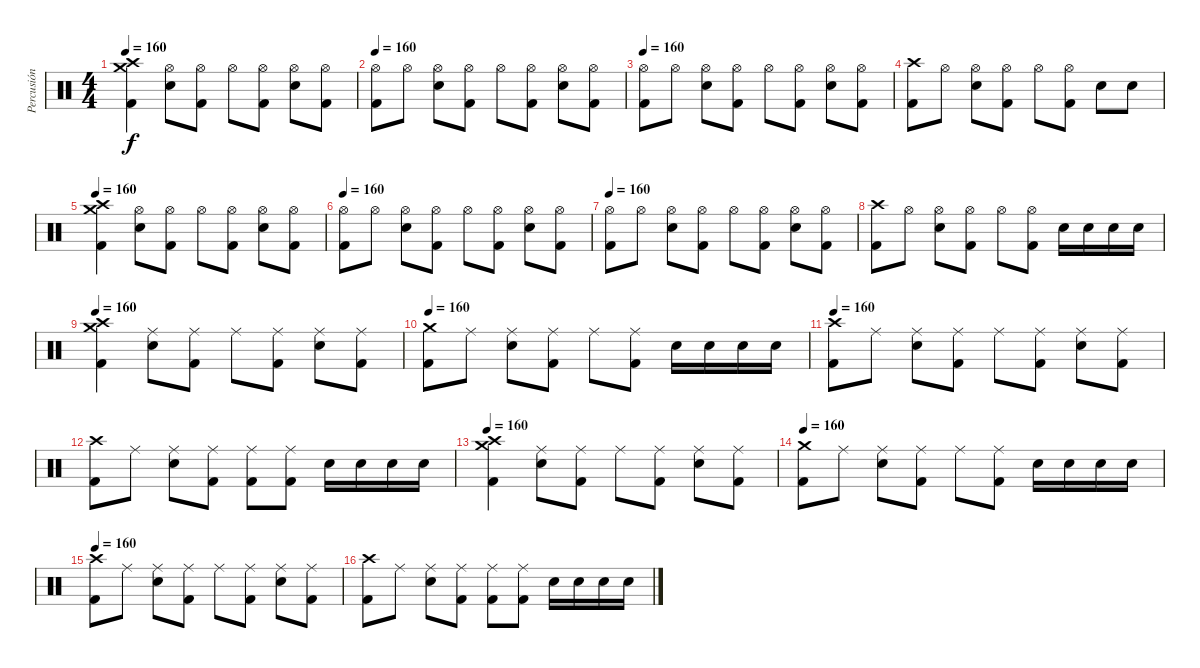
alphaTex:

\track ("Percusión" "Percusión") {instrument percussion}
\staff {score}
\articulation defaults
\ts (4 4)
\tempo 160
\clef neutral
\ks c
("Crash high (hit)" "Crash medium (hit)" "Kick (hit) 2").4{dy f} ("Hi-Hat (open)" "Snare (hit) 2").8 ("Hi-Hat (open)" "Kick (hit) 2").8 "Hi-Hat (open)".8 ("Hi-Hat (open)" "Kick (hit) 2").8 ("Hi-Hat (open)" "Snare (hit) 2").8 ("Hi-Hat (open)" "Kick (hit) 2").8 |
\tempo 160
("Hi-Hat (open)" "Kick (hit) 2").8 "Hi-Hat (open)".8 ("Hi-Hat (open)" "Snare (hit) 2").8 ("Hi-Hat (open)" "Kick (hit) 2").8 "Hi-Hat (open)".8 ("Hi-Hat (open)" "Kick (hit) 2").8 ("Hi-Hat (open)" "Snare (hit) 2").8 ("Hi-Hat (open)" "Kick (hit) 2").8 |
\tempo 160
("Hi-Hat (open)" "Kick (hit) 2").8 "Hi-Hat (open)".8 ("Hi-Hat (open)" "Snare (hit) 2").8 ("Hi-Hat (open)" "Kick (hit) 2").8 "Hi-Hat (open)".8 ("Hi-Hat (open)" "Kick (hit) 2").8 ("Hi-Hat (open)" "Snare (hit) 2").8 ("Hi-Hat (open)" "Kick (hit) 2").8 |
("Crash high (hit)" "Kick (hit) 2").8 "Hi-Hat (open)".8 ("Hi-Hat (open)" "Snare (hit) 2").8 ("Hi-Hat (open)" "Kick (hit) 2").8 "Hi-Hat (open)".8 ("Hi-Hat (open)" "Kick (hit) 2").8 "Snare (hit) 2".8 "Snare (hit) 2".8 |
\tempo 160
("Crash high (hit)" "Crash medium (hit)" "Kick (hit) 2").4 ("Hi-Hat (open)" "Snare (hit) 2").8 ("Hi-Hat (open)" "Kick (hit) 2").8 "Hi-Hat (open)".8 ("Hi-Hat (open)" "Kick (hit) 2").8 ("Hi-Hat (open)" "Snare (hit) 2").8 ("Hi-Hat (open)" "Kick (hit) 2").8 |
\tempo 160
("Hi-Hat (open)" "Kick (hit) 2").8 "Hi-Hat (open)".8 ("Hi-Hat (open)" "Snare (hit) 2").8 ("Hi-Hat (open)" "Kick (hit) 2").8 "Hi-Hat (open)".8 ("Hi-Hat (open)" "Kick (hit) 2").8 ("Hi-Hat (open)" "Snare (hit) 2").8 ("Hi-Hat (open)" "Kick (hit) 2").8 |
\tempo 160
("Hi-Hat (open)" "Kick (hit) 2").8 "Hi-Hat (open)".8 ("Hi-Hat (open)" "Snare (hit) 2").8 ("Hi-Hat (open)" "Kick (hit) 2").8 "Hi-Hat (open)".8 ("Hi-Hat (open)" "Kick (hit) 2").8 ("Hi-Hat (open)" "Snare (hit) 2").8 ("Hi-Hat (open)" "Kick (hit) 2").8 |
("Crash high (hit)" "Kick (hit) 2").8 "Hi-Hat (open)".8 ("Hi-Hat (open)" "Snare (hit) 2").8 ("Hi-Hat (open)" "Kick (hit) 2").8 "Hi-Hat (open)".8 ("Hi-Hat (open)" "Kick (hit) 2").8 "Snare (hit) 2".16 "Snare (hit) 2".16 "Snare (hit) 2".16 "Snare (hit) 2".16 |
\tempo 160
("Crash high (hit)" "Crash medium (hit)" "Kick (hit) 2").4 ("Ride (middle)" "Snare (hit) 2").8 ("Ride (middle)" "Kick (hit) 2").8 "Ride (middle)".8 ("Ride (middle)" "Kick (hit) 2").8 ("Ride (middle)" "Snare (hit) 2").8 ("Ride (middle)" "Kick (hit) 2").8 |
\tempo 160
("Crash medium (hit)" "Kick (hit) 2").8 "Ride (middle)".8 ("Ride (middle)" "Snare (hit) 2").8 ("Ride (middle)" "Kick (hit) 2").8 "Ride (middle)".8 ("Ride (middle)" "Kick (hit) 2").8 "Snare (hit) 2".16 "Snare (hit) 2".16 "Snare (hit) 2".16 "Snare (hit) 2".16 |
\tempo 160
("Crash high (hit)" "Kick (hit) 2").8 "Ride (middle)".8 ("Ride (middle)" "Snare (hit) 2").8 ("Ride (middle)" "Kick (hit) 2").8 "Ride (middle)".8 ("Ride (middle)" "Kick (hit) 2").8 ("Ride (middle)" "Snare (hit) 2").8 ("Ride (middle)" "Kick (hit) 2").8 |
("Crash high (hit)" "Kick (hit) 2").8 "Ride (middle)".8 ("Ride (middle)" "Snare (hit) 2").8 ("Ride (middle)" "Kick (hit) 2").8 ("Ride (middle)" "Kick (hit) 2").8 ("Ride (middle)" "Kick (hit) 2").8 "Snare (hit) 2".16 "Snare (hit) 2".16 "Snare (hit) 2".16 "Snare (hit) 2".16 |
\tempo 160
("Crash high (hit)" "Crash medium (hit)" "Kick (hit) 2").4 ("Ride (middle)" "Snare (hit) 2").8 ("Ride (middle)" "Kick (hit) 2").8 "Ride (middle)".8 ("Ride (middle)" "Kick (hit) 2").8 ("Ride (middle)" "Snare (hit) 2").8 ("Ride (middle)" "Kick (hit) 2").8 |
\tempo 160
("Crash medium (hit)" "Kick (hit) 2").8 "Ride (middle)".8 ("Ride (middle)" "Snare (hit) 2").8 ("Ride (middle)" "Kick (hit) 2").8 "Ride (middle)".8 ("Ride (middle)" "Kick (hit) 2").8 "Snare (hit) 2".16 "Snare (hit) 2".16 "Snare (hit) 2".16 "Snare (hit) 2".16 |
\tempo 160
("Crash high (hit)" "Kick (hit) 2").8 "Ride (middle)".8 ("Ride (middle)" "Snare (hit) 2").8 ("Ride (middle)" "Kick (hit) 2").8 "Ride (middle)".8 ("Ride (middle)" "Kick (hit) 2").8 ("Ride (middle)" "Snare (hit) 2").8 ("Ride (middle)" "Kick (hit) 2").8 |
("Crash high (hit)" "Kick (hit) 2").8 "Ride (middle)".8 ("Ride (middle)" "Snare (hit) 2").8 ("Ride (middle)" "Kick (hit) 2").8 ("Ride (middle)" "Kick (hit) 2").8 ("Ride (middle)" "Kick (hit) 2").8 "Snare (hit) 2".16 "Snare (hit) 2".16 "Snare (hit) 2".16 "Snare (hit) 2".16
